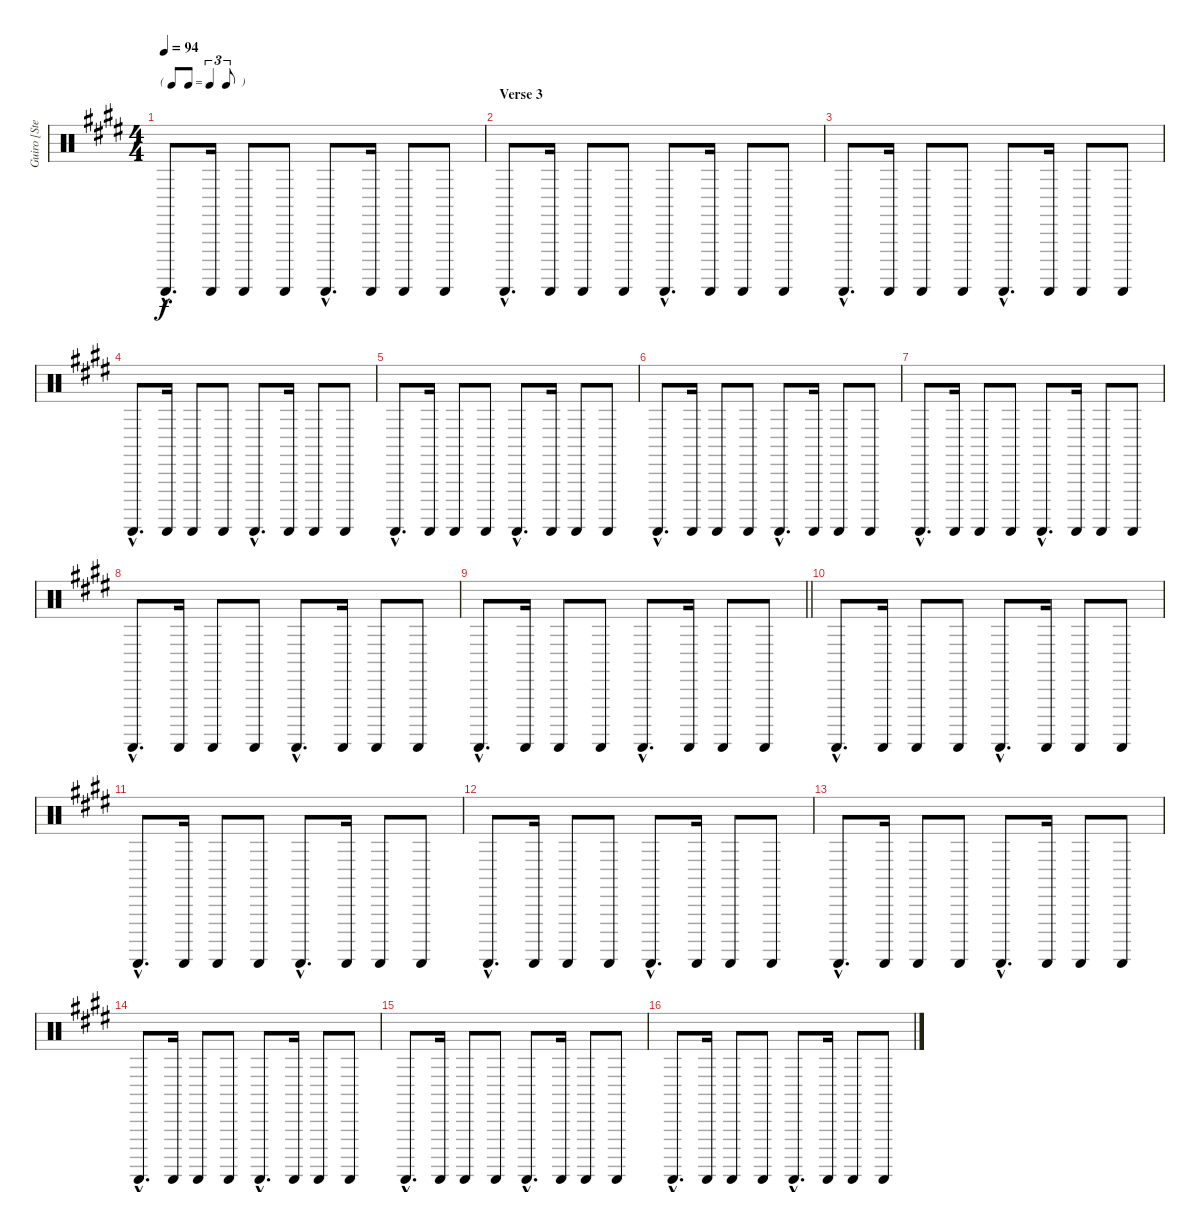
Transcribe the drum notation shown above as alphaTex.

\track ("Guiro [Steve Gadd]" "Guiro [Ste") {instrument percussion}
\staff {score}
\articulation defaults
\ts (4 4)
\tf triplet8th
\tempo 94
\clef neutral
\ks e "Guiro (scrap-return)"{hac}.8{d dy f} "Guiro (scrap-return)".16 "Guiro (scrap-return)".8 "Guiro (scrap-return)".8 "Guiro (scrap-return)"{hac}.8{d} "Guiro (scrap-return)".16 "Guiro (scrap-return)".8 "Guiro (scrap-return)".8
|
\section ("" "Verse 3")
"Guiro (scrap-return)"{hac}.8{d} "Guiro (scrap-return)".16 "Guiro (scrap-return)".8 "Guiro (scrap-return)".8 "Guiro (scrap-return)"{hac}.8{d} "Guiro (scrap-return)".16 "Guiro (scrap-return)".8 "Guiro (scrap-return)".8 |
"Guiro (scrap-return)"{hac}.8{d} "Guiro (scrap-return)".16 "Guiro (scrap-return)".8 "Guiro (scrap-return)".8 "Guiro (scrap-return)"{hac}.8{d} "Guiro (scrap-return)".16 "Guiro (scrap-return)".8 "Guiro (scrap-return)".8 |
"Guiro (scrap-return)"{hac}.8{d} "Guiro (scrap-return)".16 "Guiro (scrap-return)".8 "Guiro (scrap-return)".8 "Guiro (scrap-return)"{hac}.8{d} "Guiro (scrap-return)".16 "Guiro (scrap-return)".8 "Guiro (scrap-return)".8 |
"Guiro (scrap-return)"{hac}.8{d} "Guiro (scrap-return)".16 "Guiro (scrap-return)".8 "Guiro (scrap-return)".8 "Guiro (scrap-return)"{hac}.8{d} "Guiro (scrap-return)".16 "Guiro (scrap-return)".8 "Guiro (scrap-return)".8 |
"Guiro (scrap-return)"{hac}.8{d} "Guiro (scrap-return)".16 "Guiro (scrap-return)".8 "Guiro (scrap-return)".8 "Guiro (scrap-return)"{hac}.8{d} "Guiro (scrap-return)".16 "Guiro (scrap-return)".8 "Guiro (scrap-return)".8 |
"Guiro (scrap-return)"{hac}.8{d} "Guiro (scrap-return)".16 "Guiro (scrap-return)".8 "Guiro (scrap-return)".8 "Guiro (scrap-return)"{hac}.8{d} "Guiro (scrap-return)".16 "Guiro (scrap-return)".8 "Guiro (scrap-return)".8 |
"Guiro (scrap-return)"{hac}.8{d} "Guiro (scrap-return)".16 "Guiro (scrap-return)".8 "Guiro (scrap-return)".8 "Guiro (scrap-return)"{hac}.8{d} "Guiro (scrap-return)".16 "Guiro (scrap-return)".8 "Guiro (scrap-return)".8 |
\barLineRight lightlight "Guiro (scrap-return)"{hac}.8{d} "Guiro (scrap-return)".16 "Guiro (scrap-return)".8 "Guiro (scrap-return)".8 "Guiro (scrap-return)"{hac}.8{d} "Guiro (scrap-return)".16 "Guiro (scrap-return)".8 "Guiro (scrap-return)".8
|
"Guiro (scrap-return)"{hac}.8{d} "Guiro (scrap-return)".16 "Guiro (scrap-return)".8 "Guiro (scrap-return)".8 "Guiro (scrap-return)"{hac}.8{d} "Guiro (scrap-return)".16 "Guiro (scrap-return)".8 "Guiro (scrap-return)".8 |
"Guiro (scrap-return)"{hac}.8{d} "Guiro (scrap-return)".16 "Guiro (scrap-return)".8 "Guiro (scrap-return)".8 "Guiro (scrap-return)"{hac}.8{d} "Guiro (scrap-return)".16 "Guiro (scrap-return)".8 "Guiro (scrap-return)".8 |
"Guiro (scrap-return)"{hac}.8{d} "Guiro (scrap-return)".16 "Guiro (scrap-return)".8 "Guiro (scrap-return)".8 "Guiro (scrap-return)"{hac}.8{d} "Guiro (scrap-return)".16 "Guiro (scrap-return)".8 "Guiro (scrap-return)".8 |
"Guiro (scrap-return)"{hac}.8{d} "Guiro (scrap-return)".16 "Guiro (scrap-return)".8 "Guiro (scrap-return)".8 "Guiro (scrap-return)"{hac}.8{d} "Guiro (scrap-return)".16 "Guiro (scrap-return)".8 "Guiro (scrap-return)".8 |
"Guiro (scrap-return)"{hac}.8{d} "Guiro (scrap-return)".16 "Guiro (scrap-return)".8 "Guiro (scrap-return)".8 "Guiro (scrap-return)"{hac}.8{d} "Guiro (scrap-return)".16 "Guiro (scrap-return)".8 "Guiro (scrap-return)".8 |
"Guiro (scrap-return)"{hac}.8{d} "Guiro (scrap-return)".16 "Guiro (scrap-return)".8 "Guiro (scrap-return)".8 "Guiro (scrap-return)"{hac}.8{d} "Guiro (scrap-return)".16 "Guiro (scrap-return)".8 "Guiro (scrap-return)".8 |
"Guiro (scrap-return)"{hac}.8{d} "Guiro (scrap-return)".16 "Guiro (scrap-return)".8 "Guiro (scrap-return)".8 "Guiro (scrap-return)"{hac}.8{d} "Guiro (scrap-return)".16 "Guiro (scrap-return)".8 "Guiro (scrap-return)".8
